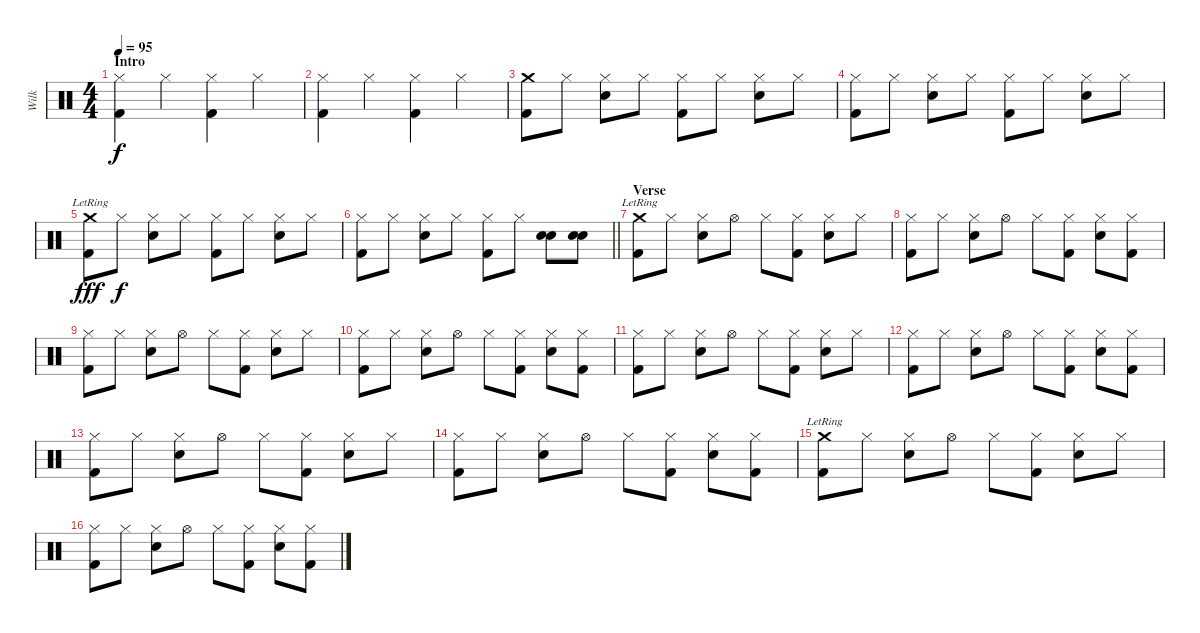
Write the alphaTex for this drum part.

\track ("Wilk" "Wilk") {instrument percussion}
\staff {score}
\articulation defaults
\ts (4 4)
\section ("" "Intro")
\tempo 95
\clef neutral
\ks c
("Hi-Hat (closed)" "Kick (hit) 2").4{dy f} "Hi-Hat (closed)".4 ("Hi-Hat (closed)" "Kick (hit) 2").4 "Hi-Hat (closed)".4 |
("Hi-Hat (closed)" "Kick (hit) 2").4 "Hi-Hat (closed)".4 ("Hi-Hat (closed)" "Kick (hit) 2").4 "Hi-Hat (closed)".4 |
("Crash medium (hit)" "Kick (hit) 2").8 "Hi-Hat (closed)".8 ("Hi-Hat (closed)" "Snare (hit) 2").8 "Hi-Hat (closed)".8 ("Hi-Hat (closed)" "Kick (hit) 2").8 "Hi-Hat (closed)".8 ("Hi-Hat (closed)" "Snare (hit) 2").8 "Hi-Hat (closed)".8 |
("Hi-Hat (closed)" "Kick (hit) 2").8 "Hi-Hat (closed)".8 ("Hi-Hat (closed)" "Snare (hit) 2").8 "Hi-Hat (closed)".8 ("Hi-Hat (closed)" "Kick (hit) 2").8 "Hi-Hat (closed)".8 ("Hi-Hat (closed)" "Snare (hit) 2").8 "Hi-Hat (closed)".8 |
("Crash medium (hit)"{lr} "Kick (hit) 2").8{dy fff} "Hi-Hat (closed)".8{dy f} ("Hi-Hat (closed)" "Snare (hit) 2").8 "Hi-Hat (closed)".8 ("Hi-Hat (closed)" "Kick (hit) 2").8 "Hi-Hat (closed)".8 ("Hi-Hat (closed)" "Snare (hit) 2").8 "Hi-Hat (closed)".8 |
\barLineRight lightlight
("Hi-Hat (closed)" "Kick (hit) 2").8 "Hi-Hat (closed)".8 ("Hi-Hat (closed)" "Snare (hit) 2").8 "Hi-Hat (closed)".8 ("Hi-Hat (closed)" "Kick (hit) 2").8 "Hi-Hat (closed)".8 ("Snare (hit) 2" "Electric Snare (hit)").8 ("Snare (hit) 2" "Electric Snare (hit)").8 |
\section ("" "Verse")
("Crash medium (hit)"{lr} "Kick (hit) 2").8 "Hi-Hat (closed)".8 ("Hi-Hat (closed)" "Snare (hit) 2").8 "Hi-Hat (open)".8 "Hi-Hat (closed)".8 ("Hi-Hat (closed)" "Kick (hit) 2").8 ("Hi-Hat (closed)" "Snare (hit) 2").8 "Hi-Hat (closed)".8 |
("Hi-Hat (closed)" "Kick (hit) 2").8 "Hi-Hat (closed)".8 ("Hi-Hat (closed)" "Snare (hit) 2").8 "Hi-Hat (open)".8 "Hi-Hat (closed)".8 ("Hi-Hat (closed)" "Kick (hit) 2").8 ("Hi-Hat (closed)" "Snare (hit) 2").8 ("Hi-Hat (closed)" "Kick (hit) 2").8 |
("Hi-Hat (closed)" "Kick (hit) 2").8 "Hi-Hat (closed)".8 ("Hi-Hat (closed)" "Snare (hit) 2").8 "Hi-Hat (open)".8 "Hi-Hat (closed)".8 ("Hi-Hat (closed)" "Kick (hit) 2").8 ("Hi-Hat (closed)" "Snare (hit) 2").8 "Hi-Hat (closed)".8 |
("Hi-Hat (closed)" "Kick (hit) 2").8 "Hi-Hat (closed)".8 ("Hi-Hat (closed)" "Snare (hit) 2").8 "Hi-Hat (open)".8 "Hi-Hat (closed)".8 ("Hi-Hat (closed)" "Kick (hit) 2").8 ("Hi-Hat (closed)" "Snare (hit) 2").8 ("Hi-Hat (closed)" "Kick (hit) 2").8 |
("Hi-Hat (closed)" "Kick (hit) 2").8 "Hi-Hat (closed)".8 ("Hi-Hat (closed)" "Snare (hit) 2").8 "Hi-Hat (open)".8 "Hi-Hat (closed)".8 ("Hi-Hat (closed)" "Kick (hit) 2").8 ("Hi-Hat (closed)" "Snare (hit) 2").8 "Hi-Hat (closed)".8 |
("Hi-Hat (closed)" "Kick (hit) 2").8 "Hi-Hat (closed)".8 ("Hi-Hat (closed)" "Snare (hit) 2").8 "Hi-Hat (open)".8 "Hi-Hat (closed)".8 ("Hi-Hat (closed)" "Kick (hit) 2").8 ("Hi-Hat (closed)" "Snare (hit) 2").8 ("Hi-Hat (closed)" "Kick (hit) 2").8 |
("Hi-Hat (closed)" "Kick (hit) 2").8 "Hi-Hat (closed)".8 ("Hi-Hat (closed)" "Snare (hit) 2").8 "Hi-Hat (open)".8 "Hi-Hat (closed)".8 ("Hi-Hat (closed)" "Kick (hit) 2").8 ("Hi-Hat (closed)" "Snare (hit) 2").8 "Hi-Hat (closed)".8 |
("Hi-Hat (closed)" "Kick (hit) 2").8 "Hi-Hat (closed)".8 ("Hi-Hat (closed)" "Snare (hit) 2").8 "Hi-Hat (open)".8 "Hi-Hat (closed)".8 ("Hi-Hat (closed)" "Kick (hit) 2").8 ("Hi-Hat (closed)" "Snare (hit) 2").8 ("Hi-Hat (closed)" "Kick (hit) 2").8 |
("Crash medium (hit)"{lr} "Kick (hit) 2").8 "Hi-Hat (closed)".8 ("Hi-Hat (closed)" "Snare (hit) 2").8 "Hi-Hat (open)".8 "Hi-Hat (closed)".8 ("Hi-Hat (closed)" "Kick (hit) 2").8 ("Hi-Hat (closed)" "Snare (hit) 2").8 "Hi-Hat (closed)".8 |
("Hi-Hat (closed)" "Kick (hit) 2").8 "Hi-Hat (closed)".8 ("Hi-Hat (closed)" "Snare (hit) 2").8 "Hi-Hat (open)".8 "Hi-Hat (closed)".8 ("Hi-Hat (closed)" "Kick (hit) 2").8 ("Hi-Hat (closed)" "Snare (hit) 2").8 ("Hi-Hat (closed)" "Kick (hit) 2").8
